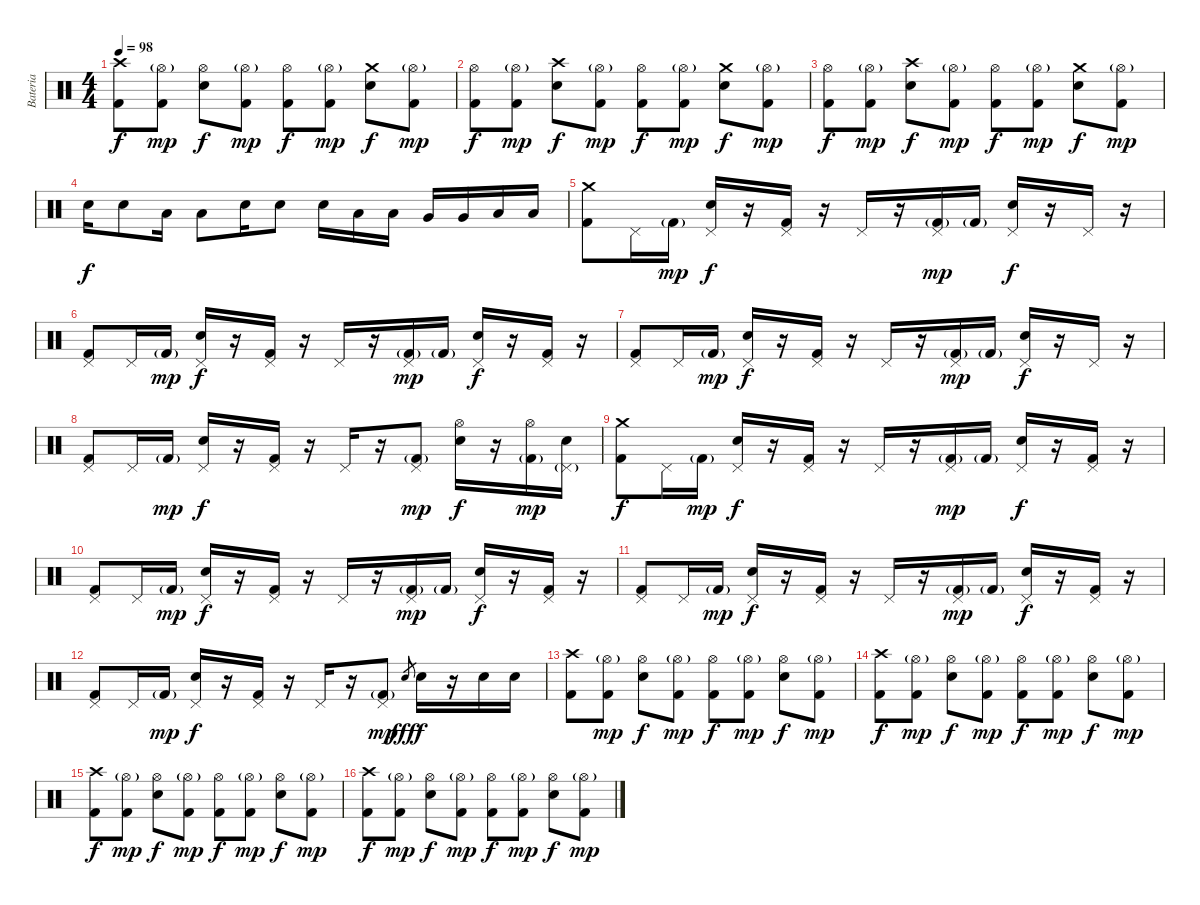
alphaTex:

\track ("Bateria" "Bateria") {instrument percussion}
\staff {score}
\articulation defaults
\ts (4 4)
\tempo 98
\clef neutral
\ks c
("Crash high (hit)" "Kick (hit) 2").8{dy f} ("Hi-Hat (open)"{g} "Kick (hit) 2").8{dy mp} ("Hi-Hat (open)" "Snare (hit) 2").8{dy f} ("Hi-Hat (open)"{g} "Kick (hit) 2").8{dy mp} ("Hi-Hat (open)" "Kick (hit) 2").8{dy f} ("Hi-Hat (open)"{g} "Kick (hit) 2").8{dy mp} ("Crash medium (hit)" "Snare (hit) 2").8{dy f} ("Hi-Hat (open)"{g} "Kick (hit) 2").8{dy mp} |
("Hi-Hat (open)" "Kick (hit) 2").8{dy f} ("Hi-Hat (open)"{g} "Kick (hit) 2").8{dy mp} ("Crash high (hit)" "Snare (hit) 2").8{dy f} ("Hi-Hat (open)"{g} "Kick (hit) 2").8{dy mp} ("Hi-Hat (open)" "Kick (hit) 2").8{dy f} ("Hi-Hat (open)"{g} "Kick (hit) 2").8{dy mp} ("Crash medium (hit)" "Snare (hit) 2").8{dy f} ("Hi-Hat (open)"{g} "Kick (hit) 2").8{dy mp} |
("Hi-Hat (open)" "Kick (hit) 2").8{dy f} ("Hi-Hat (open)"{g} "Kick (hit) 2").8{dy mp} ("Crash high (hit)" "Snare (hit) 2").8{dy f} ("Hi-Hat (open)"{g} "Kick (hit) 2").8{dy mp} ("Hi-Hat (open)" "Kick (hit) 2").8{dy f} ("Hi-Hat (open)"{g} "Kick (hit) 2").8{dy mp} ("Crash medium (hit)" "Snare (hit) 2").8{dy f} ("Hi-Hat (open)"{g} "Kick (hit) 2").8{dy mp} |
"Snare (hit) 2".16{dy f} "Snare (hit) 2".8 "Low Tom (hit)".16 "Low Tom (hit)".8 "Snare (hit) 2".16 "Snare (hit) 2".8 "Snare (hit) 2".16 "Low Tom (hit)".16 "Low Tom (hit)".16 "Very Low Tom (hit)".16 "Very Low Tom (hit)".16 "Low Floor Tom (hit)".16 "Low Floor Tom (hit)".16 |
("Crash medium (hit)" "Kick (hit) 2").8 "Pedal Hi-Hat (hit)".16 "Kick (hit) 2"{g}.16{dy mp} ("Pedal Hi-Hat (hit)" "Snare (hit) 2").16{dy f} r.16 ("Pedal Hi-Hat (hit)" "Kick (hit) 2").16 r.16 "Pedal Hi-Hat (hit)".16 r.16 ("Pedal Hi-Hat (hit)" "Kick (hit) 2"{g}).16{dy mp} "Kick (hit) 2"{g}.16 ("Pedal Hi-Hat (hit)" "Snare (hit) 2").16{dy f} r.16 "Pedal Hi-Hat (hit)".16 r.16 |
("Pedal Hi-Hat (hit)" "Kick (hit) 2").8 "Pedal Hi-Hat (hit)".16 "Kick (hit) 2"{g}.16{dy mp} ("Pedal Hi-Hat (hit)" "Snare (hit) 2").16{dy f} r.16 ("Pedal Hi-Hat (hit)" "Kick (hit) 2").16 r.16 "Pedal Hi-Hat (hit)".16 r.16 ("Pedal Hi-Hat (hit)" "Kick (hit) 2"{g}).16{dy mp} "Kick (hit) 2"{g}.16 ("Pedal Hi-Hat (hit)" "Snare (hit) 2").16{dy f} r.16 ("Pedal Hi-Hat (hit)" "Kick (hit) 2").16 r.16 |
("Pedal Hi-Hat (hit)" "Kick (hit) 2").8 "Pedal Hi-Hat (hit)".16 "Kick (hit) 2"{g}.16{dy mp} ("Pedal Hi-Hat (hit)" "Snare (hit) 2").16{dy f} r.16 ("Pedal Hi-Hat (hit)" "Kick (hit) 2").16 r.16 "Pedal Hi-Hat (hit)".16 r.16 ("Pedal Hi-Hat (hit)" "Kick (hit) 2"{g}).16{dy mp} "Kick (hit) 2"{g}.16 ("Pedal Hi-Hat (hit)" "Snare (hit) 2").16{dy f} r.16 "Pedal Hi-Hat (hit)".16 r.16 |
("Pedal Hi-Hat (hit)" "Kick (hit) 2").8 "Pedal Hi-Hat (hit)".16 "Kick (hit) 2"{g}.16{dy mp} ("Pedal Hi-Hat (hit)" "Snare (hit) 2").16{dy f} r.16 ("Pedal Hi-Hat (hit)" "Kick (hit) 2").16 r.16 "Pedal Hi-Hat (hit)".16 r.16 ("Pedal Hi-Hat (hit)" "Kick (hit) 2"{g}).8{dy mp} ("Hi-Hat (open)" "Snare (hit) 2").16{dy f} r.16 ("Hi-Hat (open)" "Kick (hit) 2"{g}).16{dy mp} ("Pedal Hi-Hat (hit)"{g} "Snare (hit) 2").16 |
("Crash medium (hit)" "Kick (hit) 2").8{dy f} "Pedal Hi-Hat (hit)".16 "Kick (hit) 2"{g}.16{dy mp} ("Pedal Hi-Hat (hit)" "Snare (hit) 2").16{dy f} r.16 ("Pedal Hi-Hat (hit)" "Kick (hit) 2").16 r.16 "Pedal Hi-Hat (hit)".16 r.16 ("Pedal Hi-Hat (hit)" "Kick (hit) 2"{g}).16{dy mp} "Kick (hit) 2"{g}.16 ("Pedal Hi-Hat (hit)" "Snare (hit) 2").16{dy f} r.16 ("Pedal Hi-Hat (hit)" "Kick (hit) 2").16 r.16 |
("Pedal Hi-Hat (hit)" "Kick (hit) 2").8 "Pedal Hi-Hat (hit)".16 "Kick (hit) 2"{g}.16{dy mp} ("Pedal Hi-Hat (hit)" "Snare (hit) 2").16{dy f} r.16 ("Pedal Hi-Hat (hit)" "Kick (hit) 2").16 r.16 "Pedal Hi-Hat (hit)".16 r.16 ("Pedal Hi-Hat (hit)" "Kick (hit) 2"{g}).16{dy mp} "Kick (hit) 2"{g}.16 ("Pedal Hi-Hat (hit)" "Snare (hit) 2").16{dy f} r.16 ("Pedal Hi-Hat (hit)" "Kick (hit) 2").16 r.16 |
("Pedal Hi-Hat (hit)" "Kick (hit) 2").8 "Pedal Hi-Hat (hit)".16 "Kick (hit) 2"{g}.16{dy mp} ("Pedal Hi-Hat (hit)" "Snare (hit) 2").16{dy f} r.16 ("Pedal Hi-Hat (hit)" "Kick (hit) 2").16 r.16 "Pedal Hi-Hat (hit)".16 r.16 ("Pedal Hi-Hat (hit)" "Kick (hit) 2"{g}).16{dy mp} "Kick (hit) 2"{g}.16 ("Pedal Hi-Hat (hit)" "Snare (hit) 2").16{dy f} r.16 ("Pedal Hi-Hat (hit)" "Kick (hit) 2").16 r.16 |
("Pedal Hi-Hat (hit)" "Kick (hit) 2").8 "Pedal Hi-Hat (hit)".16 "Kick (hit) 2"{g}.16{dy mp} ("Pedal Hi-Hat (hit)" "Snare (hit) 2").16{dy f} r.16 ("Pedal Hi-Hat (hit)" "Kick (hit) 2").16 r.16 "Pedal Hi-Hat (hit)".16 r.16 ("Pedal Hi-Hat (hit)" "Kick (hit) 2"{g}).8{dy mp} "Snare (hit) 2".8{gr dy fff} "Snare (hit) 2".16{dy f} r.16 "Snare (hit) 2".16 "Snare (hit) 2".16 |
("Crash high (hit)" "Kick (hit) 2").8 ("Hi-Hat (open)"{g} "Kick (hit) 2").8{dy mp} ("Hi-Hat (open)" "Snare (hit) 2").8{dy f} ("Hi-Hat (open)"{g} "Kick (hit) 2").8{dy mp} ("Hi-Hat (open)" "Kick (hit) 2").8{dy f} ("Hi-Hat (open)"{g} "Kick (hit) 2").8{dy mp} ("Hi-Hat (open)" "Snare (hit) 2").8{dy f} ("Hi-Hat (open)"{g} "Kick (hit) 2").8{dy mp} |
("Crash high (hit)" "Kick (hit) 2").8{dy f} ("Hi-Hat (open)"{g} "Kick (hit) 2").8{dy mp} ("Hi-Hat (open)" "Snare (hit) 2").8{dy f} ("Hi-Hat (open)"{g} "Kick (hit) 2").8{dy mp} ("Hi-Hat (open)" "Kick (hit) 2").8{dy f} ("Hi-Hat (open)"{g} "Kick (hit) 2").8{dy mp} ("Hi-Hat (open)" "Snare (hit) 2").8{dy f} ("Hi-Hat (open)"{g} "Kick (hit) 2").8{dy mp} |
("Crash high (hit)" "Kick (hit) 2").8{dy f} ("Hi-Hat (open)"{g} "Kick (hit) 2").8{dy mp} ("Hi-Hat (open)" "Snare (hit) 2").8{dy f} ("Hi-Hat (open)"{g} "Kick (hit) 2").8{dy mp} ("Hi-Hat (open)" "Kick (hit) 2").8{dy f} ("Hi-Hat (open)"{g} "Kick (hit) 2").8{dy mp} ("Hi-Hat (open)" "Snare (hit) 2").8{dy f} ("Hi-Hat (open)"{g} "Kick (hit) 2").8{dy mp} |
("Crash high (hit)" "Kick (hit) 2").8{dy f} ("Hi-Hat (open)"{g} "Kick (hit) 2").8{dy mp} ("Hi-Hat (open)" "Snare (hit) 2").8{dy f} ("Hi-Hat (open)"{g} "Kick (hit) 2").8{dy mp} ("Hi-Hat (open)" "Kick (hit) 2").8{dy f} ("Hi-Hat (open)"{g} "Kick (hit) 2").8{dy mp} ("Hi-Hat (open)" "Snare (hit) 2").8{dy f} ("Hi-Hat (open)"{g} "Kick (hit) 2").8{dy mp}
